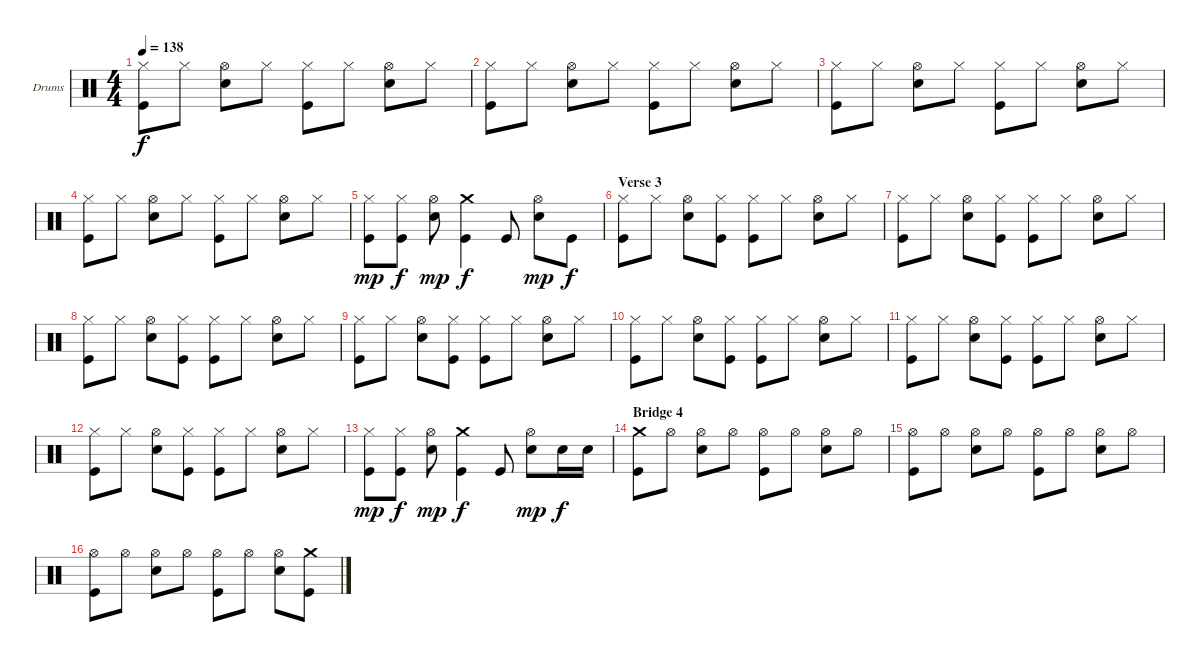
\bracketExtendMode groupsimilarinstruments
\firstSystemTrackNameOrientation horizontal
\otherSystemsTrackNameOrientation horizontal
\track ("Drumkit" "Drums") {instrument percussion}
\staff {score}
\articulation defaults
\ts (4 4)
\tempo 138
\clef neutral
\ks c
("Hi-Hat (closed)" "Kick (hit)").8{dy f} "Hi-Hat (closed)".8 ("Hi-Hat (open)" "Snare (hit) 2").8 "Hi-Hat (closed)".8 ("Hi-Hat (closed)" "Kick (hit)").8 "Hi-Hat (closed)".8 ("Hi-Hat (open)" "Snare (hit) 2").8 "Hi-Hat (closed)".8 |
("Hi-Hat (closed)" "Kick (hit)").8 "Hi-Hat (closed)".8 ("Hi-Hat (open)" "Snare (hit) 2").8 "Hi-Hat (closed)".8 ("Hi-Hat (closed)" "Kick (hit)").8 "Hi-Hat (closed)".8 ("Hi-Hat (open)" "Snare (hit) 2").8 "Hi-Hat (closed)".8 |
("Hi-Hat (closed)" "Kick (hit)").8 "Hi-Hat (closed)".8 ("Hi-Hat (open)" "Snare (hit) 2").8 "Hi-Hat (closed)".8 ("Hi-Hat (closed)" "Kick (hit)").8 "Hi-Hat (closed)".8 ("Hi-Hat (open)" "Snare (hit) 2").8 "Hi-Hat (closed)".8 |
("Hi-Hat (closed)" "Kick (hit)").8 "Hi-Hat (closed)".8 ("Hi-Hat (open)" "Snare (hit) 2").8 "Hi-Hat (closed)".8 ("Hi-Hat (closed)" "Kick (hit)").8 "Hi-Hat (closed)".8 ("Hi-Hat (open)" "Snare (hit) 2").8 "Hi-Hat (closed)".8 |
("Hi-Hat (closed)" "Kick (hit)").8{dy mp} ("Hi-Hat (closed)" "Kick (hit)").8{dy f} ("Hi-Hat (open)" "Snare (hit) 2").8{dy mp} ("Crash medium (hit)" "Kick (hit)").4{dy f} "Kick (hit)".8 ("Hi-Hat (open)" "Snare (hit) 2").8{dy mp} "Kick (hit)".8{dy f} |
\section ("" "Verse 3")
("Hi-Hat (closed)" "Kick (hit)").8 "Hi-Hat (closed)".8 ("Hi-Hat (open)" "Snare (hit) 2").8 ("Hi-Hat (closed)" "Kick (hit)").8 ("Hi-Hat (closed)" "Kick (hit)").8 "Hi-Hat (closed)".8 ("Hi-Hat (open)" "Snare (hit) 2").8 "Hi-Hat (closed)".8 |
("Hi-Hat (closed)" "Kick (hit)").8 "Hi-Hat (closed)".8 ("Hi-Hat (open)" "Snare (hit) 2").8 ("Hi-Hat (closed)" "Kick (hit)").8 ("Hi-Hat (closed)" "Kick (hit)").8 "Hi-Hat (closed)".8 ("Hi-Hat (open)" "Snare (hit) 2").8 "Hi-Hat (closed)".8 |
("Hi-Hat (closed)" "Kick (hit)").8 "Hi-Hat (closed)".8 ("Hi-Hat (open)" "Snare (hit) 2").8 ("Hi-Hat (closed)" "Kick (hit)").8 ("Hi-Hat (closed)" "Kick (hit)").8 "Hi-Hat (closed)".8 ("Hi-Hat (open)" "Snare (hit) 2").8 "Hi-Hat (closed)".8 |
("Hi-Hat (closed)" "Kick (hit)").8 "Hi-Hat (closed)".8 ("Hi-Hat (open)" "Snare (hit) 2").8 ("Hi-Hat (closed)" "Kick (hit)").8 ("Hi-Hat (closed)" "Kick (hit)").8 "Hi-Hat (closed)".8 ("Hi-Hat (open)" "Snare (hit) 2").8 "Hi-Hat (closed)".8 |
("Hi-Hat (closed)" "Kick (hit)").8 "Hi-Hat (closed)".8 ("Hi-Hat (open)" "Snare (hit) 2").8 ("Hi-Hat (closed)" "Kick (hit)").8 ("Hi-Hat (closed)" "Kick (hit)").8 "Hi-Hat (closed)".8 ("Hi-Hat (open)" "Snare (hit) 2").8 "Hi-Hat (closed)".8 |
("Hi-Hat (closed)" "Kick (hit)").8 "Hi-Hat (closed)".8 ("Hi-Hat (open)" "Snare (hit) 2").8 ("Hi-Hat (closed)" "Kick (hit)").8 ("Hi-Hat (closed)" "Kick (hit)").8 "Hi-Hat (closed)".8 ("Hi-Hat (open)" "Snare (hit) 2").8 "Hi-Hat (closed)".8 |
("Hi-Hat (closed)" "Kick (hit)").8 "Hi-Hat (closed)".8 ("Hi-Hat (open)" "Snare (hit) 2").8 ("Hi-Hat (closed)" "Kick (hit)").8 ("Hi-Hat (closed)" "Kick (hit)").8 "Hi-Hat (closed)".8 ("Hi-Hat (open)" "Snare (hit) 2").8 "Hi-Hat (closed)".8 |
("Hi-Hat (closed)" "Kick (hit)").8{dy mp} ("Hi-Hat (closed)" "Kick (hit)").8{dy f} ("Hi-Hat (open)" "Snare (hit) 2").8{dy mp} ("Crash medium (hit)" "Kick (hit)").4{dy f} "Kick (hit)".8 ("Hi-Hat (open)" "Snare (hit) 2").8{dy mp} "Snare (hit) 2".16{dy f} "Snare (hit) 2".16 |
\section ("" "Bridge 4")
("Crash medium (hit)" "Kick (hit)").8 "Hi-Hat (open)".8 ("Hi-Hat (open)" "Snare (hit) 2").8 "Hi-Hat (open)".8 ("Hi-Hat (open)" "Kick (hit)").8 "Hi-Hat (open)".8 ("Hi-Hat (open)" "Snare (hit) 2").8 "Hi-Hat (open)".8 |
("Hi-Hat (open)" "Kick (hit)").8 "Hi-Hat (open)".8 ("Hi-Hat (open)" "Snare (hit) 2").8 "Hi-Hat (open)".8 ("Hi-Hat (open)" "Kick (hit)").8 "Hi-Hat (open)".8 ("Hi-Hat (open)" "Snare (hit) 2").8 "Hi-Hat (open)".8 |
("Hi-Hat (open)" "Kick (hit)").8 "Hi-Hat (open)".8 ("Hi-Hat (open)" "Snare (hit) 2").8 "Hi-Hat (open)".8 ("Hi-Hat (open)" "Kick (hit)").8 "Hi-Hat (open)".8 ("Hi-Hat (open)" "Snare (hit) 2").8 ("Crash medium (hit)" "Kick (hit)").8
